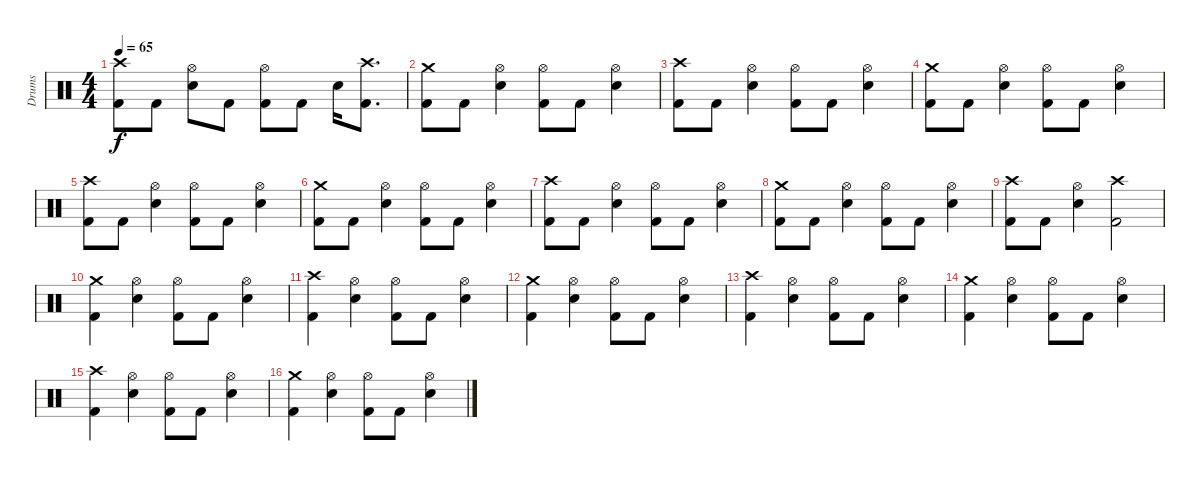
\track ("Drums" "Drums") {instrument percussion}
\staff {score}
\articulation defaults
\ts (4 4)
\tempo 65
\clef neutral
\ks c
("Crash high (hit)" "Kick (hit) 2").8{dy f} "Kick (hit) 2".8 ("Hi-Hat (open)" "Snare (hit) 2").8 "Kick (hit) 2".8 ("Hi-Hat (open)" "Kick (hit) 2").8 "Kick (hit) 2".8 "Snare (hit) 2".16 ("Crash high (hit)" "Kick (hit) 2").8{d} |
("Crash medium (hit)" "Kick (hit) 2").8 "Kick (hit) 2".8 ("Hi-Hat (open)" "Snare (hit) 2").4 ("Hi-Hat (open)" "Kick (hit) 2").8 "Kick (hit) 2".8 ("Hi-Hat (open)" "Snare (hit) 2").4 |
("Crash high (hit)" "Kick (hit) 2").8 "Kick (hit) 2".8 ("Hi-Hat (open)" "Snare (hit) 2").4 ("Hi-Hat (open)" "Kick (hit) 2").8 "Kick (hit) 2".8 ("Hi-Hat (open)" "Snare (hit) 2").4 |
("Crash medium (hit)" "Kick (hit) 2").8 "Kick (hit) 2".8 ("Hi-Hat (open)" "Snare (hit) 2").4 ("Hi-Hat (open)" "Kick (hit) 2").8 "Kick (hit) 2".8 ("Hi-Hat (open)" "Snare (hit) 2").4 |
("Crash high (hit)" "Kick (hit) 2").8 "Kick (hit) 2".8 ("Hi-Hat (open)" "Snare (hit) 2").4 ("Hi-Hat (open)" "Kick (hit) 2").8 "Kick (hit) 2".8 ("Hi-Hat (open)" "Snare (hit) 2").4 |
("Crash medium (hit)" "Kick (hit) 2").8 "Kick (hit) 2".8 ("Hi-Hat (open)" "Snare (hit) 2").4 ("Hi-Hat (open)" "Kick (hit) 2").8 "Kick (hit) 2".8 ("Hi-Hat (open)" "Snare (hit) 2").4 |
("Crash high (hit)" "Kick (hit) 2").8 "Kick (hit) 2".8 ("Hi-Hat (open)" "Snare (hit) 2").4 ("Hi-Hat (open)" "Kick (hit) 2").8 "Kick (hit) 2".8 ("Hi-Hat (open)" "Snare (hit) 2").4 |
("Crash medium (hit)" "Kick (hit) 2").8 "Kick (hit) 2".8 ("Hi-Hat (open)" "Snare (hit) 2").4 ("Hi-Hat (open)" "Kick (hit) 2").8 "Kick (hit) 2".8 ("Hi-Hat (open)" "Snare (hit) 2").4 |
("Crash high (hit)" "Kick (hit) 2").8 "Kick (hit) 2".8 ("Hi-Hat (open)" "Snare (hit) 2").4 ("Crash high (hit)" "Kick (hit) 2").2 |
("Crash medium (hit)" "Kick (hit) 2").4 ("Hi-Hat (open)" "Snare (hit) 2").4 ("Hi-Hat (open)" "Kick (hit) 2").8 "Kick (hit) 2".8 ("Hi-Hat (open)" "Snare (hit) 2").4 |
("Crash high (hit)" "Kick (hit) 2").4 ("Hi-Hat (open)" "Snare (hit) 2").4 ("Hi-Hat (open)" "Kick (hit) 2").8 "Kick (hit) 2".8 ("Hi-Hat (open)" "Snare (hit) 2").4 |
("Crash medium (hit)" "Kick (hit) 2").4 ("Hi-Hat (open)" "Snare (hit) 2").4 ("Hi-Hat (open)" "Kick (hit) 2").8 "Kick (hit) 2".8 ("Hi-Hat (open)" "Snare (hit) 2").4 |
("Crash high (hit)" "Kick (hit) 2").4 ("Hi-Hat (open)" "Snare (hit) 2").4 ("Hi-Hat (open)" "Kick (hit) 2").8 "Kick (hit) 2".8 ("Hi-Hat (open)" "Snare (hit) 2").4 |
("Crash medium (hit)" "Kick (hit) 2").4 ("Hi-Hat (open)" "Snare (hit) 2").4 ("Hi-Hat (open)" "Kick (hit) 2").8 "Kick (hit) 2".8 ("Hi-Hat (open)" "Snare (hit) 2").4 |
("Crash high (hit)" "Kick (hit) 2").4 ("Hi-Hat (open)" "Snare (hit) 2").4 ("Hi-Hat (open)" "Kick (hit) 2").8 "Kick (hit) 2".8 ("Hi-Hat (open)" "Snare (hit) 2").4 |
("Crash medium (hit)" "Kick (hit) 2").4 ("Hi-Hat (open)" "Snare (hit) 2").4 ("Hi-Hat (open)" "Kick (hit) 2").8 "Kick (hit) 2".8 ("Hi-Hat (open)" "Snare (hit) 2").4
